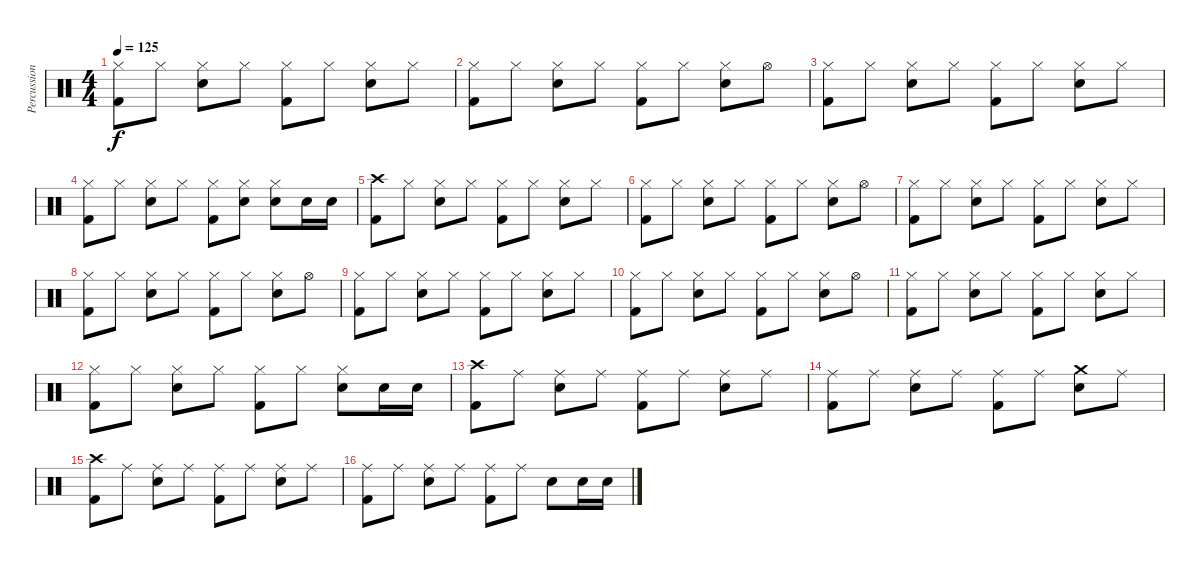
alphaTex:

\track ("Percussion" "Percussion") {instrument percussion}
\staff {score}
\articulation defaults
\ts (4 4)
\tempo 125
\clef neutral
\ks c
("Hi-Hat (closed)" "Kick (hit) 2").8{dy f} "Hi-Hat (closed)".8 ("Hi-Hat (closed)" "Snare (hit) 2").8 "Hi-Hat (closed)".8 ("Hi-Hat (closed)" "Kick (hit) 2").8 "Hi-Hat (closed)".8 ("Hi-Hat (closed)" "Snare (hit) 2").8 "Hi-Hat (closed)".8 |
("Hi-Hat (closed)" "Kick (hit) 2").8 "Hi-Hat (closed)".8 ("Hi-Hat (closed)" "Snare (hit) 2").8 "Hi-Hat (closed)".8 ("Hi-Hat (closed)" "Kick (hit) 2").8 "Hi-Hat (closed)".8 ("Hi-Hat (closed)" "Snare (hit) 2").8 "Hi-Hat (open)".8 |
("Hi-Hat (closed)" "Kick (hit) 2").8 "Hi-Hat (closed)".8 ("Hi-Hat (closed)" "Snare (hit) 2").8 "Hi-Hat (closed)".8 ("Hi-Hat (closed)" "Kick (hit) 2").8 "Hi-Hat (closed)".8 ("Hi-Hat (closed)" "Snare (hit) 2").8 "Hi-Hat (closed)".8 |
("Hi-Hat (closed)" "Kick (hit) 2").8 "Hi-Hat (closed)".8 ("Hi-Hat (closed)" "Snare (hit) 2").8 "Hi-Hat (closed)".8 ("Hi-Hat (closed)" "Kick (hit) 2").8 ("Hi-Hat (closed)" "Snare (hit) 2").8 ("Hi-Hat (closed)" "Snare (hit) 2").8 "Snare (hit) 2".16 "Snare (hit) 2".16 |
("Crash high (hit)" "Kick (hit) 2").8 "Hi-Hat (closed)".8 ("Hi-Hat (closed)" "Snare (hit) 2").8 "Hi-Hat (closed)".8 ("Hi-Hat (closed)" "Kick (hit) 2").8 "Hi-Hat (closed)".8 ("Hi-Hat (closed)" "Snare (hit) 2").8 "Hi-Hat (closed)".8 |
("Hi-Hat (closed)" "Kick (hit) 2").8 "Hi-Hat (closed)".8 ("Hi-Hat (closed)" "Snare (hit) 2").8 "Hi-Hat (closed)".8 ("Hi-Hat (closed)" "Kick (hit) 2").8 "Hi-Hat (closed)".8 ("Hi-Hat (closed)" "Snare (hit) 2").8 "Hi-Hat (open)".8 |
("Hi-Hat (closed)" "Kick (hit) 2").8 "Hi-Hat (closed)".8 ("Hi-Hat (closed)" "Snare (hit) 2").8 "Hi-Hat (closed)".8 ("Hi-Hat (closed)" "Kick (hit) 2").8 "Hi-Hat (closed)".8 ("Hi-Hat (closed)" "Snare (hit) 2").8 "Hi-Hat (closed)".8 |
("Hi-Hat (closed)" "Kick (hit) 2").8 "Hi-Hat (closed)".8 ("Hi-Hat (closed)" "Snare (hit) 2").8 "Hi-Hat (closed)".8 ("Hi-Hat (closed)" "Kick (hit) 2").8 "Hi-Hat (closed)".8 ("Hi-Hat (closed)" "Snare (hit) 2").8 "Hi-Hat (open)".8 |
("Hi-Hat (closed)" "Kick (hit) 2").8 "Hi-Hat (closed)".8 ("Hi-Hat (closed)" "Snare (hit) 2").8 "Hi-Hat (closed)".8 ("Hi-Hat (closed)" "Kick (hit) 2").8 "Hi-Hat (closed)".8 ("Hi-Hat (closed)" "Snare (hit) 2").8 "Hi-Hat (closed)".8 |
("Hi-Hat (closed)" "Kick (hit) 2").8 "Hi-Hat (closed)".8 ("Hi-Hat (closed)" "Snare (hit) 2").8 "Hi-Hat (closed)".8 ("Hi-Hat (closed)" "Kick (hit) 2").8 "Hi-Hat (closed)".8 ("Hi-Hat (closed)" "Snare (hit) 2").8 "Hi-Hat (open)".8 |
("Hi-Hat (closed)" "Kick (hit) 2").8 "Hi-Hat (closed)".8 ("Hi-Hat (closed)" "Snare (hit) 2").8 "Hi-Hat (closed)".8 ("Hi-Hat (closed)" "Kick (hit) 2").8 "Hi-Hat (closed)".8 ("Hi-Hat (closed)" "Snare (hit) 2").8 "Hi-Hat (closed)".8 |
("Hi-Hat (closed)" "Kick (hit) 2").8 "Hi-Hat (closed)".8 ("Hi-Hat (closed)" "Snare (hit) 2").8 "Hi-Hat (closed)".8 ("Hi-Hat (closed)" "Kick (hit) 2").8 "Hi-Hat (closed)".8 ("Hi-Hat (closed)" "Snare (hit) 2").8 "Snare (hit) 2".16 "Snare (hit) 2".16 |
("Crash high (hit)" "Kick (hit) 2").8 "Ride (middle)".8 ("Ride (middle)" "Snare (hit) 2").8 "Ride (middle)".8 ("Ride (middle)" "Kick (hit) 2").8 "Ride (middle)".8 ("Ride (middle)" "Snare (hit) 2").8 "Ride (middle)".8 |
("Ride (middle)" "Kick (hit) 2").8 "Ride (middle)".8 ("Ride (middle)" "Snare (hit) 2").8 "Ride (middle)".8 ("Ride (middle)" "Kick (hit) 2").8 "Ride (middle)".8 ("Crash medium (hit)" "Snare (hit) 2").8 "Ride (middle)".8 |
("Crash high (hit)" "Kick (hit) 2").8 "Ride (middle)".8 ("Ride (middle)" "Snare (hit) 2").8 "Ride (middle)".8 ("Ride (middle)" "Kick (hit) 2").8 "Ride (middle)".8 ("Ride (middle)" "Snare (hit) 2").8 "Ride (middle)".8 |
("Ride (middle)" "Kick (hit) 2").8 "Ride (middle)".8 ("Ride (middle)" "Snare (hit) 2").8 "Ride (middle)".8 ("Ride (middle)" "Kick (hit) 2").8 "Ride (middle)".8 "Snare (hit) 2".8 "Snare (hit) 2".16 "Snare (hit) 2".16
